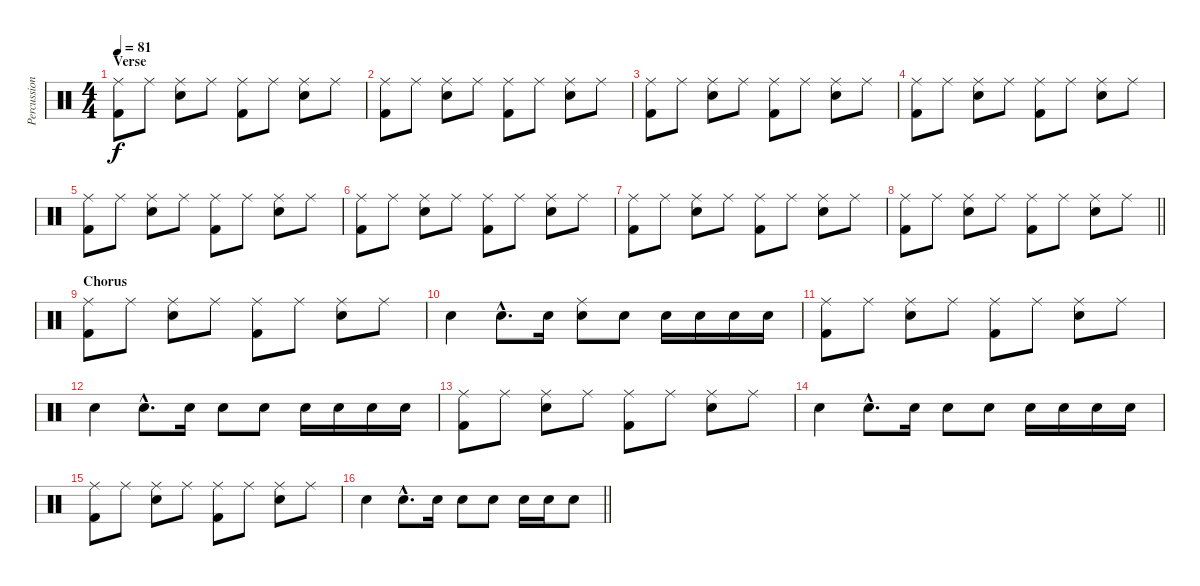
\track ("Percussion" "Percussion") {instrument percussion}
\staff {score}
\articulation defaults
\ts (4 4)
\section ("" "Verse")
\tempo 81
\clef neutral
\ks c
("Ride (middle)" "Kick (hit) 2").8{dy f} "Ride (middle)".8 ("Ride (middle)" "Snare (hit) 2").8 "Ride (middle)".8 ("Ride (middle)" "Kick (hit) 2").8 "Ride (middle)".8 ("Ride (middle)" "Snare (hit) 2").8 "Ride (middle)".8 |
("Ride (middle)" "Kick (hit) 2").8 "Ride (middle)".8 ("Ride (middle)" "Snare (hit) 2").8 "Ride (middle)".8 ("Ride (middle)" "Kick (hit) 2").8 "Ride (middle)".8 ("Ride (middle)" "Snare (hit) 2").8 "Ride (middle)".8 |
("Ride (middle)" "Kick (hit) 2").8 "Ride (middle)".8 ("Ride (middle)" "Snare (hit) 2").8 "Ride (middle)".8 ("Ride (middle)" "Kick (hit) 2").8 "Ride (middle)".8 ("Ride (middle)" "Snare (hit) 2").8 "Ride (middle)".8 |
("Ride (middle)" "Kick (hit) 2").8 "Ride (middle)".8 ("Ride (middle)" "Snare (hit) 2").8 "Ride (middle)".8 ("Ride (middle)" "Kick (hit) 2").8 "Ride (middle)".8 ("Ride (middle)" "Snare (hit) 2").8 "Ride (middle)".8 |
("Ride (middle)" "Kick (hit) 2").8 "Ride (middle)".8 ("Ride (middle)" "Snare (hit) 2").8 "Ride (middle)".8 ("Ride (middle)" "Kick (hit) 2").8 "Ride (middle)".8 ("Ride (middle)" "Snare (hit) 2").8 "Ride (middle)".8 |
("Ride (middle)" "Kick (hit) 2").8 "Ride (middle)".8 ("Ride (middle)" "Snare (hit) 2").8 "Ride (middle)".8 ("Ride (middle)" "Kick (hit) 2").8 "Ride (middle)".8 ("Ride (middle)" "Snare (hit) 2").8 "Ride (middle)".8 |
("Ride (middle)" "Kick (hit) 2").8 "Ride (middle)".8 ("Ride (middle)" "Snare (hit) 2").8 "Ride (middle)".8 ("Ride (middle)" "Kick (hit) 2").8 "Ride (middle)".8 ("Ride (middle)" "Snare (hit) 2").8 "Ride (middle)".8 |
\barLineRight lightlight
("Ride (middle)" "Kick (hit) 2").8 "Ride (middle)".8 ("Ride (middle)" "Snare (hit) 2").8 "Ride (middle)".8 ("Ride (middle)" "Kick (hit) 2").8 "Ride (middle)".8 ("Ride (middle)" "Snare (hit) 2").8 "Ride (middle)".8 |
\section ("" "Chorus")
("Ride (middle)" "Kick (hit) 2").8 "Ride (middle)".8 ("Ride (middle)" "Snare (hit) 2").8 "Ride (middle)".8 ("Ride (middle)" "Kick (hit) 2").8 "Ride (middle)".8 ("Ride (middle)" "Snare (hit) 2").8 "Ride (middle)".8 |
"Snare (hit) 2".4 "Snare (hit) 2"{hac}.8{d} "Snare (hit) 2".16 ("Ride (middle)" "Snare (hit) 2").8 "Snare (hit) 2".8 "Snare (hit) 2".16 "Snare (hit) 2".16 "Snare (hit) 2".16 "Snare (hit) 2".16 |
("Ride (middle)" "Kick (hit) 2").8 "Ride (middle)".8 ("Ride (middle)" "Snare (hit) 2").8 "Ride (middle)".8 ("Ride (middle)" "Kick (hit) 2").8 "Ride (middle)".8 ("Ride (middle)" "Snare (hit) 2").8 "Ride (middle)".8 |
"Snare (hit) 2".4 "Snare (hit) 2"{hac}.8{d} "Snare (hit) 2".16 "Snare (hit) 2".8 "Snare (hit) 2".8 "Snare (hit) 2".16 "Snare (hit) 2".16 "Snare (hit) 2".16 "Snare (hit) 2".16 |
("Ride (middle)" "Kick (hit) 2").8 "Ride (middle)".8 ("Ride (middle)" "Snare (hit) 2").8 "Ride (middle)".8 ("Ride (middle)" "Kick (hit) 2").8 "Ride (middle)".8 ("Ride (middle)" "Snare (hit) 2").8 "Ride (middle)".8 |
"Snare (hit) 2".4 "Snare (hit) 2"{hac}.8{d} "Snare (hit) 2".16 "Snare (hit) 2".8 "Snare (hit) 2".8 "Snare (hit) 2".16 "Snare (hit) 2".16 "Snare (hit) 2".16 "Snare (hit) 2".16 |
("Ride (middle)" "Kick (hit) 2").8 "Ride (middle)".8 ("Ride (middle)" "Snare (hit) 2").8 "Ride (middle)".8 ("Ride (middle)" "Kick (hit) 2").8 "Ride (middle)".8 ("Ride (middle)" "Snare (hit) 2").8 "Ride (middle)".8 |
\barLineRight lightlight "Snare (hit) 2".4 "Snare (hit) 2"{hac}.8{d} "Snare (hit) 2".16 "Snare (hit) 2".8 "Snare (hit) 2".8 "Snare (hit) 2".16 "Snare (hit) 2".16 "Snare (hit) 2".8
